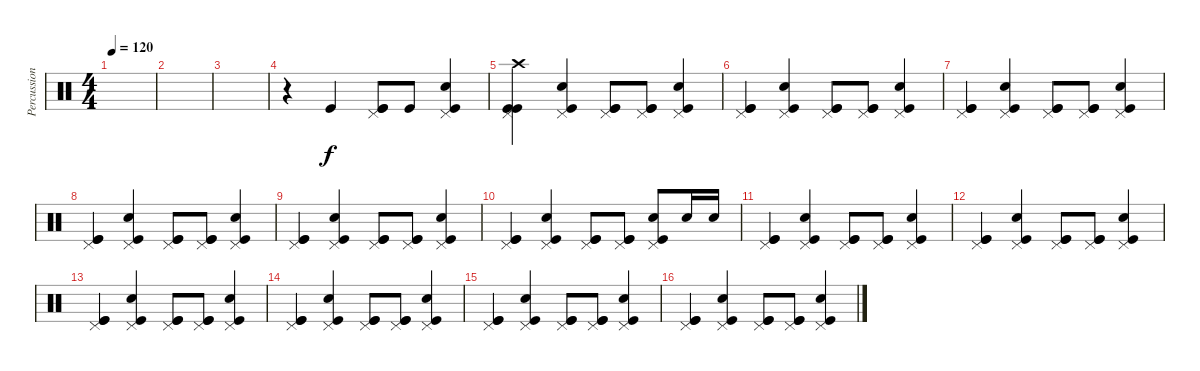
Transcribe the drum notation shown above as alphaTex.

\track ("Percussions" "Percussion") {instrument percussion}
\staff {score}
\articulation defaults
\ts (4 4)
\tempo 120
\clef neutral
\ks c
|
|
|
r.4 "Kick (hit)".4 ("Kick (hit)" "Pedal Hi-Hat (hit)" "Kick (hit)").8 "Kick (hit)".8 ("Electric Snare (hit)" "Pedal Hi-Hat (hit)" "Kick (hit)").4 |
("Kick (hit)" "Crash high (hit)" "Pedal Hi-Hat (hit)" "Kick (hit)").4 ("Electric Snare (hit)" "Pedal Hi-Hat (hit)" "Kick (hit)").4 ("Kick (hit)" "Pedal Hi-Hat (hit)" "Kick (hit)").8 ("Kick (hit)" "Pedal Hi-Hat (hit)" "Kick (hit)").8 ("Electric Snare (hit)" "Pedal Hi-Hat (hit)" "Kick (hit)").4 |
("Kick (hit)" "Pedal Hi-Hat (hit)" "Kick (hit)").4 ("Electric Snare (hit)" "Pedal Hi-Hat (hit)" "Kick (hit)").4 ("Kick (hit)" "Pedal Hi-Hat (hit)" "Kick (hit)").8 ("Kick (hit)" "Pedal Hi-Hat (hit)" "Kick (hit)").8 ("Electric Snare (hit)" "Pedal Hi-Hat (hit)" "Kick (hit)").4 |
("Kick (hit)" "Pedal Hi-Hat (hit)" "Kick (hit)").4 ("Electric Snare (hit)" "Pedal Hi-Hat (hit)" "Kick (hit)").4 ("Kick (hit)" "Pedal Hi-Hat (hit)" "Kick (hit)").8 ("Kick (hit)" "Pedal Hi-Hat (hit)" "Kick (hit)").8 ("Electric Snare (hit)" "Pedal Hi-Hat (hit)" "Kick (hit)").4 |
("Kick (hit)" "Pedal Hi-Hat (hit)" "Kick (hit)").4 ("Electric Snare (hit)" "Pedal Hi-Hat (hit)" "Kick (hit)").4 ("Kick (hit)" "Pedal Hi-Hat (hit)" "Kick (hit)").8 ("Kick (hit)" "Pedal Hi-Hat (hit)" "Kick (hit)").8 ("Electric Snare (hit)" "Pedal Hi-Hat (hit)" "Kick (hit)").4 |
("Kick (hit)" "Pedal Hi-Hat (hit)" "Kick (hit)").4 ("Electric Snare (hit)" "Pedal Hi-Hat (hit)" "Kick (hit)").4 ("Kick (hit)" "Pedal Hi-Hat (hit)" "Kick (hit)").8 ("Kick (hit)" "Pedal Hi-Hat (hit)" "Kick (hit)").8 ("Electric Snare (hit)" "Pedal Hi-Hat (hit)" "Kick (hit)").4 |
("Kick (hit)" "Pedal Hi-Hat (hit)" "Kick (hit)").4 ("Electric Snare (hit)" "Pedal Hi-Hat (hit)" "Kick (hit)").4 ("Kick (hit)" "Pedal Hi-Hat (hit)" "Kick (hit)").8 ("Kick (hit)" "Pedal Hi-Hat (hit)" "Kick (hit)").8 ("Electric Snare (hit)" "Pedal Hi-Hat (hit)" "Kick (hit)").8 "Electric Snare (hit)".16 "Electric Snare (hit)".16 |
("Kick (hit)" "Pedal Hi-Hat (hit)" "Kick (hit)").4 ("Electric Snare (hit)" "Pedal Hi-Hat (hit)" "Kick (hit)").4 ("Kick (hit)" "Pedal Hi-Hat (hit)" "Kick (hit)").8 ("Kick (hit)" "Pedal Hi-Hat (hit)" "Kick (hit)").8 ("Electric Snare (hit)" "Pedal Hi-Hat (hit)" "Kick (hit)").4 |
("Kick (hit)" "Pedal Hi-Hat (hit)" "Kick (hit)").4 ("Electric Snare (hit)" "Pedal Hi-Hat (hit)" "Kick (hit)").4 ("Kick (hit)" "Pedal Hi-Hat (hit)" "Kick (hit)").8 ("Kick (hit)" "Pedal Hi-Hat (hit)" "Kick (hit)").8 ("Electric Snare (hit)" "Pedal Hi-Hat (hit)" "Kick (hit)").4 |
("Kick (hit)" "Pedal Hi-Hat (hit)" "Kick (hit)").4 ("Electric Snare (hit)" "Pedal Hi-Hat (hit)" "Kick (hit)").4 ("Kick (hit)" "Pedal Hi-Hat (hit)" "Kick (hit)").8 ("Kick (hit)" "Pedal Hi-Hat (hit)" "Kick (hit)").8 ("Electric Snare (hit)" "Pedal Hi-Hat (hit)" "Kick (hit)").4 |
("Kick (hit)" "Pedal Hi-Hat (hit)" "Kick (hit)").4 ("Electric Snare (hit)" "Pedal Hi-Hat (hit)" "Kick (hit)").4 ("Kick (hit)" "Pedal Hi-Hat (hit)" "Kick (hit)").8 ("Kick (hit)" "Pedal Hi-Hat (hit)" "Kick (hit)").8 ("Electric Snare (hit)" "Pedal Hi-Hat (hit)" "Kick (hit)").4 |
("Kick (hit)" "Pedal Hi-Hat (hit)" "Kick (hit)").4 ("Electric Snare (hit)" "Pedal Hi-Hat (hit)" "Kick (hit)").4 ("Kick (hit)" "Pedal Hi-Hat (hit)" "Kick (hit)").8 ("Kick (hit)" "Pedal Hi-Hat (hit)" "Kick (hit)").8 ("Electric Snare (hit)" "Pedal Hi-Hat (hit)" "Kick (hit)").4 |
("Kick (hit)" "Pedal Hi-Hat (hit)" "Kick (hit)").4 ("Electric Snare (hit)" "Pedal Hi-Hat (hit)" "Kick (hit)").4 ("Kick (hit)" "Pedal Hi-Hat (hit)" "Kick (hit)").8 ("Kick (hit)" "Pedal Hi-Hat (hit)" "Kick (hit)").8 ("Electric Snare (hit)" "Pedal Hi-Hat (hit)" "Kick (hit)").4
